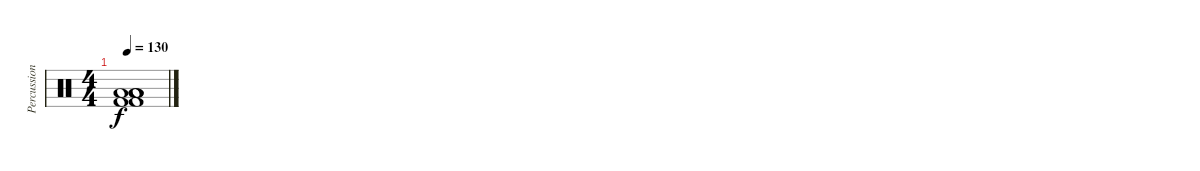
\track ("Percussion" "Percussion") {instrument percussion}
\staff {score}
\articulation defaults
\ts (4 4)
\tempo 130
\clef neutral
\ks c
("Low Floor Tom (hit)" "Low Tom (hit)" "Low Tom (hit)" "Low Floor Tom (hit)" "Kick (hit) 2" "Kick (hit) 2").1{dy f}
